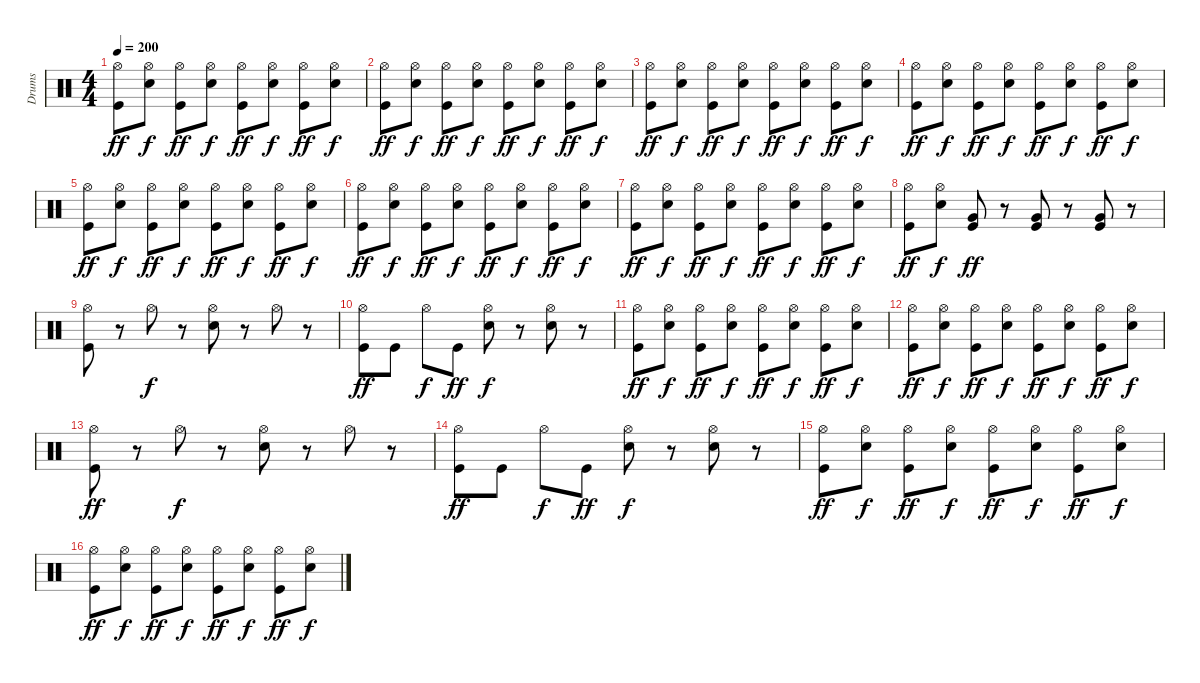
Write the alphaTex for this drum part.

\track ("Drums" "Drums") {instrument percussion}
\staff {score}
\articulation defaults
\ts (4 4)
\tempo 200
\clef neutral
\ks c
("Hi-Hat (open)" "Kick (hit)").8{dy ff} ("Hi-Hat (open)" "Electric Snare (hit)").8{dy f} ("Hi-Hat (open)" "Kick (hit)").8{dy ff} ("Hi-Hat (open)" "Electric Snare (hit)").8{dy f} ("Hi-Hat (open)" "Kick (hit)").8{dy ff} ("Hi-Hat (open)" "Electric Snare (hit)").8{dy f} ("Hi-Hat (open)" "Kick (hit)").8{dy ff} ("Hi-Hat (open)" "Electric Snare (hit)").8{dy f} |
("Hi-Hat (open)" "Kick (hit)").8{dy ff} ("Hi-Hat (open)" "Electric Snare (hit)").8{dy f} ("Hi-Hat (open)" "Kick (hit)").8{dy ff} ("Hi-Hat (open)" "Electric Snare (hit)").8{dy f} ("Hi-Hat (open)" "Kick (hit)").8{dy ff} ("Hi-Hat (open)" "Electric Snare (hit)").8{dy f} ("Hi-Hat (open)" "Kick (hit)").8{dy ff} ("Hi-Hat (open)" "Electric Snare (hit)").8{dy f} |
("Hi-Hat (open)" "Kick (hit)").8{dy ff} ("Hi-Hat (open)" "Electric Snare (hit)").8{dy f} ("Hi-Hat (open)" "Kick (hit)").8{dy ff} ("Hi-Hat (open)" "Electric Snare (hit)").8{dy f} ("Hi-Hat (open)" "Kick (hit)").8{dy ff} ("Hi-Hat (open)" "Electric Snare (hit)").8{dy f} ("Hi-Hat (open)" "Kick (hit)").8{dy ff} ("Hi-Hat (open)" "Electric Snare (hit)").8{dy f} |
("Hi-Hat (open)" "Kick (hit)").8{dy ff} ("Hi-Hat (open)" "Electric Snare (hit)").8{dy f} ("Hi-Hat (open)" "Kick (hit)").8{dy ff} ("Hi-Hat (open)" "Electric Snare (hit)").8{dy f} ("Hi-Hat (open)" "Kick (hit)").8{dy ff} ("Hi-Hat (open)" "Electric Snare (hit)").8{dy f} ("Hi-Hat (open)" "Kick (hit)").8{dy ff} ("Hi-Hat (open)" "Electric Snare (hit)").8{dy f} |
("Hi-Hat (open)" "Kick (hit)").8{dy ff} ("Hi-Hat (open)" "Electric Snare (hit)").8{dy f} ("Hi-Hat (open)" "Kick (hit)").8{dy ff} ("Hi-Hat (open)" "Electric Snare (hit)").8{dy f} ("Hi-Hat (open)" "Kick (hit)").8{dy ff} ("Hi-Hat (open)" "Electric Snare (hit)").8{dy f} ("Hi-Hat (open)" "Kick (hit)").8{dy ff} ("Hi-Hat (open)" "Electric Snare (hit)").8{dy f} |
("Hi-Hat (open)" "Kick (hit)").8{dy ff} ("Hi-Hat (open)" "Electric Snare (hit)").8{dy f} ("Hi-Hat (open)" "Kick (hit)").8{dy ff} ("Hi-Hat (open)" "Electric Snare (hit)").8{dy f} ("Hi-Hat (open)" "Kick (hit)").8{dy ff} ("Hi-Hat (open)" "Electric Snare (hit)").8{dy f} ("Hi-Hat (open)" "Kick (hit)").8{dy ff} ("Hi-Hat (open)" "Electric Snare (hit)").8{dy f} |
("Hi-Hat (open)" "Kick (hit)").8{dy ff} ("Hi-Hat (open)" "Electric Snare (hit)").8{dy f} ("Hi-Hat (open)" "Kick (hit)").8{dy ff} ("Hi-Hat (open)" "Electric Snare (hit)").8{dy f} ("Hi-Hat (open)" "Kick (hit)").8{dy ff} ("Hi-Hat (open)" "Electric Snare (hit)").8{dy f} ("Hi-Hat (open)" "Kick (hit)").8{dy ff} ("Hi-Hat (open)" "Electric Snare (hit)").8{dy f} |
("Hi-Hat (open)" "Kick (hit)").8{dy ff} ("Hi-Hat (open)" "Electric Snare (hit)").8{dy f} ("Very Low Tom (hit)" "Kick (hit)").8{dy ff} r.8 ("Very Low Tom (hit)" "Kick (hit)").8 r.8 ("Very Low Tom (hit)" "Kick (hit)").8 r.8 |
("Hi-Hat (open)" "Kick (hit)").8 r.8 "Hi-Hat (open)".8{dy f} r.8 ("Hi-Hat (open)" "Electric Snare (hit)").8 r.8 "Hi-Hat (open)".8 r.8 |
("Hi-Hat (open)" "Kick (hit)").8{dy ff} "Kick (hit)".8 "Hi-Hat (open)".8{dy f} "Kick (hit)".8{dy ff} ("Hi-Hat (open)" "Electric Snare (hit)").8{dy f} r.8 ("Hi-Hat (open)" "Electric Snare (hit)").8 r.8 |
("Hi-Hat (open)" "Kick (hit)").8{dy ff} ("Hi-Hat (open)" "Electric Snare (hit)").8{dy f} ("Hi-Hat (open)" "Kick (hit)").8{dy ff} ("Hi-Hat (open)" "Electric Snare (hit)").8{dy f} ("Hi-Hat (open)" "Kick (hit)").8{dy ff} ("Hi-Hat (open)" "Electric Snare (hit)").8{dy f} ("Hi-Hat (open)" "Kick (hit)").8{dy ff} ("Hi-Hat (open)" "Electric Snare (hit)").8{dy f} |
("Hi-Hat (open)" "Kick (hit)").8{dy ff} ("Hi-Hat (open)" "Electric Snare (hit)").8{dy f} ("Hi-Hat (open)" "Kick (hit)").8{dy ff} ("Hi-Hat (open)" "Electric Snare (hit)").8{dy f} ("Hi-Hat (open)" "Kick (hit)").8{dy ff} ("Hi-Hat (open)" "Electric Snare (hit)").8{dy f} ("Hi-Hat (open)" "Kick (hit)").8{dy ff} ("Hi-Hat (open)" "Electric Snare (hit)").8{dy f} |
("Hi-Hat (open)" "Kick (hit)").8{dy ff} r.8 "Hi-Hat (open)".8{dy f} r.8 ("Hi-Hat (open)" "Electric Snare (hit)").8 r.8 "Hi-Hat (open)".8 r.8 |
("Hi-Hat (open)" "Kick (hit)").8{dy ff} "Kick (hit)".8 "Hi-Hat (open)".8{dy f} "Kick (hit)".8{dy ff} ("Hi-Hat (open)" "Electric Snare (hit)").8{dy f} r.8 ("Hi-Hat (open)" "Electric Snare (hit)").8 r.8 |
("Hi-Hat (open)" "Kick (hit)").8{dy ff} ("Hi-Hat (open)" "Electric Snare (hit)").8{dy f} ("Hi-Hat (open)" "Kick (hit)").8{dy ff} ("Hi-Hat (open)" "Electric Snare (hit)").8{dy f} ("Hi-Hat (open)" "Kick (hit)").8{dy ff} ("Hi-Hat (open)" "Electric Snare (hit)").8{dy f} ("Hi-Hat (open)" "Kick (hit)").8{dy ff} ("Hi-Hat (open)" "Electric Snare (hit)").8{dy f} |
("Hi-Hat (open)" "Kick (hit)").8{dy ff} ("Hi-Hat (open)" "Electric Snare (hit)").8{dy f} ("Hi-Hat (open)" "Kick (hit)").8{dy ff} ("Hi-Hat (open)" "Electric Snare (hit)").8{dy f} ("Hi-Hat (open)" "Kick (hit)").8{dy ff} ("Hi-Hat (open)" "Electric Snare (hit)").8{dy f} ("Hi-Hat (open)" "Kick (hit)").8{dy ff} ("Hi-Hat (open)" "Electric Snare (hit)").8{dy f}
